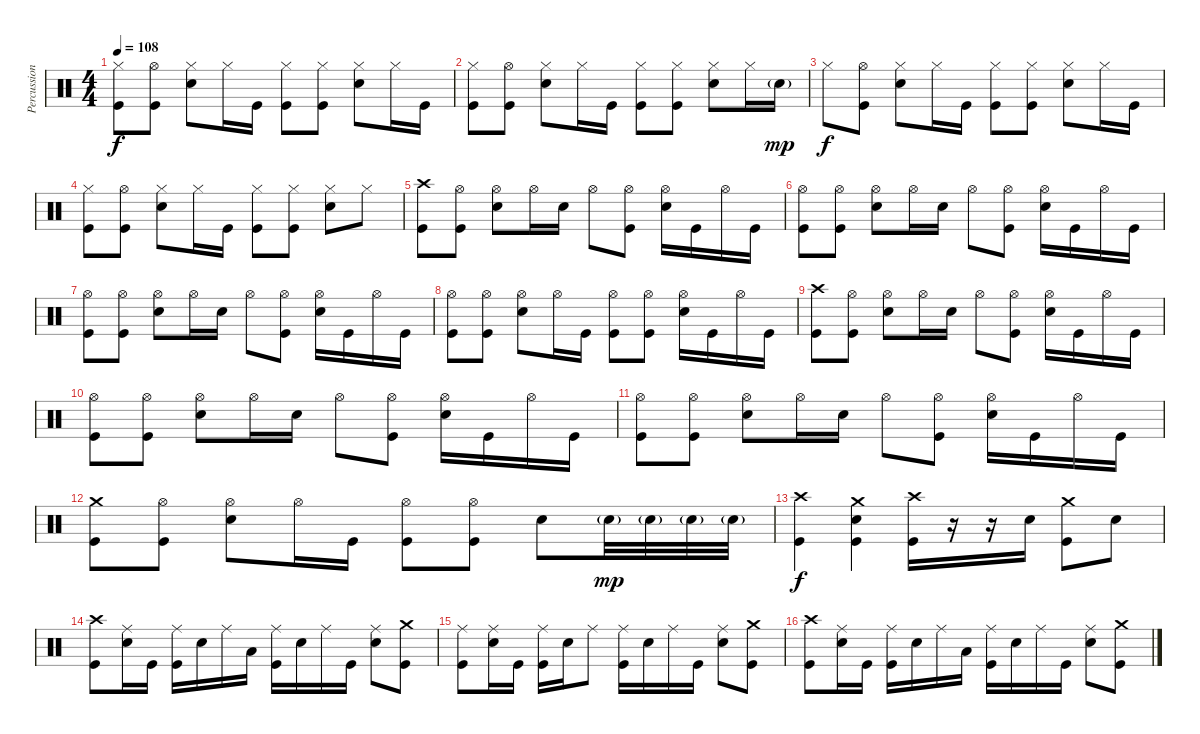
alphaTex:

\track ("Percussion" "Percussion") {instrument percussion}
\staff {score}
\articulation defaults
\ts (4 4)
\tempo 108
\clef neutral
\ks c
("Hi-Hat (closed)" "Kick (hit)").8{dy f} ("Hi-Hat (open)" "Kick (hit)").8 ("Hi-Hat (closed)" "Electric Snare (hit)").8 "Hi-Hat (closed)".16 "Kick (hit)".16 ("Hi-Hat (closed)" "Kick (hit)").8 ("Hi-Hat (closed)" "Kick (hit)").8 ("Hi-Hat (closed)" "Electric Snare (hit)").8 "Hi-Hat (closed)".16 "Kick (hit)".16 |
("Hi-Hat (closed)" "Kick (hit)").8 ("Hi-Hat (open)" "Kick (hit)").8 ("Hi-Hat (closed)" "Electric Snare (hit)").8 "Hi-Hat (closed)".16 "Kick (hit)".16 ("Hi-Hat (closed)" "Kick (hit)").8 ("Hi-Hat (closed)" "Kick (hit)").8 ("Hi-Hat (closed)" "Electric Snare (hit)").8 "Hi-Hat (closed)".16 "Electric Snare (hit)"{g}.16{dy mp} |
"Hi-Hat (closed)".8{dy f} ("Hi-Hat (open)" "Kick (hit)").8 ("Hi-Hat (closed)" "Electric Snare (hit)").8 "Hi-Hat (closed)".16 "Kick (hit)".16 ("Hi-Hat (closed)" "Kick (hit)").8 ("Hi-Hat (closed)" "Kick (hit)").8 ("Hi-Hat (closed)" "Electric Snare (hit)").8 "Hi-Hat (closed)".16 "Kick (hit)".16 |
("Hi-Hat (closed)" "Kick (hit)").8 ("Hi-Hat (open)" "Kick (hit)").8 ("Hi-Hat (closed)" "Electric Snare (hit)").8 "Hi-Hat (closed)".16 "Kick (hit)".16 ("Hi-Hat (closed)" "Kick (hit)").8 ("Hi-Hat (closed)" "Kick (hit)").8 ("Hi-Hat (closed)" "Electric Snare (hit)").8 "Hi-Hat (closed)".8 |
("Crash high (hit)" "Kick (hit)").8 ("Hi-Hat (open)" "Kick (hit)").8 ("Hi-Hat (open)" "Electric Snare (hit)").8 "Hi-Hat (open)".16 "Electric Snare (hit)".16 "Hi-Hat (open)".8 ("Hi-Hat (open)" "Kick (hit)").8 ("Hi-Hat (open)" "Electric Snare (hit)").16 "Kick (hit)".16 "Hi-Hat (open)".16 "Kick (hit)".16 |
("Hi-Hat (open)" "Kick (hit)").8 ("Hi-Hat (open)" "Kick (hit)").8 ("Hi-Hat (open)" "Electric Snare (hit)").8 "Hi-Hat (open)".16 "Electric Snare (hit)".16 "Hi-Hat (open)".8 ("Hi-Hat (open)" "Kick (hit)").8 ("Hi-Hat (open)" "Electric Snare (hit)").16 "Kick (hit)".16 "Hi-Hat (open)".16 "Kick (hit)".16 |
("Hi-Hat (open)" "Kick (hit)").8 ("Hi-Hat (open)" "Kick (hit)").8 ("Hi-Hat (open)" "Electric Snare (hit)").8 "Hi-Hat (open)".16 "Electric Snare (hit)".16 "Hi-Hat (open)".8 ("Hi-Hat (open)" "Kick (hit)").8 ("Hi-Hat (open)" "Electric Snare (hit)").16 "Kick (hit)".16 "Hi-Hat (open)".16 "Kick (hit)".16 |
("Hi-Hat (open)" "Kick (hit)").8 ("Hi-Hat (open)" "Kick (hit)").8 ("Hi-Hat (open)" "Electric Snare (hit)").8 "Hi-Hat (open)".16 "Kick (hit)".16 ("Hi-Hat (open)" "Kick (hit)").8 ("Hi-Hat (open)" "Kick (hit)").8 ("Hi-Hat (open)" "Electric Snare (hit)").16 "Kick (hit)".16 "Hi-Hat (open)".16 "Kick (hit)".16 |
("Crash high (hit)" "Kick (hit)").8 ("Hi-Hat (open)" "Kick (hit)").8 ("Hi-Hat (open)" "Electric Snare (hit)").8 "Hi-Hat (open)".16 "Electric Snare (hit)".16 "Hi-Hat (open)".8 ("Hi-Hat (open)" "Kick (hit)").8 ("Hi-Hat (open)" "Electric Snare (hit)").16 "Kick (hit)".16 "Hi-Hat (open)".16 "Kick (hit)".16 |
("Hi-Hat (open)" "Kick (hit)").8 ("Hi-Hat (open)" "Kick (hit)").8 ("Hi-Hat (open)" "Electric Snare (hit)").8 "Hi-Hat (open)".16 "Electric Snare (hit)".16 "Hi-Hat (open)".8 ("Hi-Hat (open)" "Kick (hit)").8 ("Hi-Hat (open)" "Electric Snare (hit)").16 "Kick (hit)".16 "Hi-Hat (open)".16 "Kick (hit)".16 |
("Hi-Hat (open)" "Kick (hit)").8 ("Hi-Hat (open)" "Kick (hit)").8 ("Hi-Hat (open)" "Electric Snare (hit)").8 "Hi-Hat (open)".16 "Electric Snare (hit)".16 "Hi-Hat (open)".8 ("Hi-Hat (open)" "Kick (hit)").8 ("Hi-Hat (open)" "Electric Snare (hit)").16 "Kick (hit)".16 "Hi-Hat (open)".16 "Kick (hit)".16 |
("Crash medium (hit)" "Kick (hit)").8 ("Hi-Hat (open)" "Kick (hit)").8 ("Hi-Hat (open)" "Electric Snare (hit)").8 "Hi-Hat (open)".16 "Kick (hit)".16 ("Hi-Hat (open)" "Kick (hit)").8 ("Hi-Hat (open)" "Kick (hit)").8 "Electric Snare (hit)".8 "Electric Snare (hit)"{g}.32{dy mp} "Electric Snare (hit)"{g}.32 "Electric Snare (hit)"{g}.32 "Electric Snare (hit)"{g}.32 |
("Crash high (hit)" "Kick (hit)").4{dy f} ("Crash medium (hit)" "Electric Snare (hit)" "Kick (hit)").4 ("Crash high (hit)" "Kick (hit)").16 r.16 r.16 "Electric Snare (hit)".16 ("Crash medium (hit)" "Kick (hit)").8 "Electric Snare (hit)".8 |
("Crash high (hit)" "Kick (hit)").8 ("Ride (middle)" "Electric Snare (hit)").16 "Kick (hit)".16 ("Ride (middle)" "Kick (hit)").16 "Electric Snare (hit)".16 "Ride (middle)".16 "Low Tom (hit)".16 ("Ride (middle)" "Kick (hit)").16 "Electric Snare (hit)".16 "Ride (middle)".16 "Kick (hit)".16 ("Ride (middle)" "Electric Snare (hit)").8 ("Crash medium (hit)" "Kick (hit)").8 |
("Ride (middle)" "Kick (hit)").8 ("Ride (middle)" "Electric Snare (hit)").16 "Kick (hit)".16 ("Ride (middle)" "Kick (hit)").16 "Electric Snare (hit)".16 "Ride (middle)".8 ("Ride (middle)" "Kick (hit)").16 "Electric Snare (hit)".16 "Ride (middle)".16 "Kick (hit)".16 ("Ride (middle)" "Electric Snare (hit)").8 ("Crash medium (hit)" "Kick (hit)").8 |
("Crash high (hit)" "Kick (hit)").8 ("Ride (middle)" "Electric Snare (hit)").16 "Kick (hit)".16 ("Ride (middle)" "Kick (hit)").16 "Electric Snare (hit)".16 "Ride (middle)".16 "Low Tom (hit)".16 ("Ride (middle)" "Kick (hit)").16 "Electric Snare (hit)".16 "Ride (middle)".16 "Kick (hit)".16 ("Ride (middle)" "Electric Snare (hit)").8 ("Crash medium (hit)" "Kick (hit)").8
